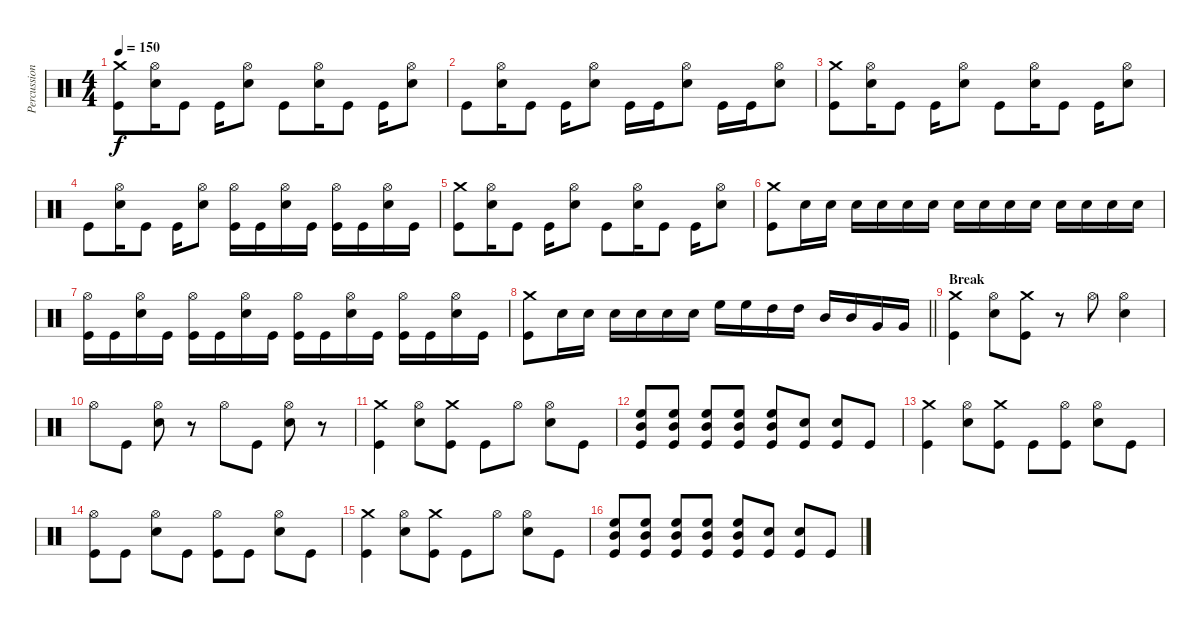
\track ("Percussion" "Percussion") {instrument percussion}
\staff {score}
\articulation defaults
\ts (4 4)
\tempo 150
\clef neutral
\ks c
("Crash medium (hit)" "Kick (hit)").8{dy f} ("Hi-Hat (open)" "Snare (hit) 2").16 "Kick (hit)".8 "Kick (hit)".16 ("Hi-Hat (open)" "Snare (hit) 2").8 "Kick (hit)".8 ("Hi-Hat (open)" "Snare (hit) 2").16 "Kick (hit)".8 "Kick (hit)".16 ("Hi-Hat (open)" "Snare (hit) 2").8 |
"Kick (hit)".8 ("Hi-Hat (open)" "Snare (hit) 2").16 "Kick (hit)".8 "Kick (hit)".16 ("Hi-Hat (open)" "Snare (hit) 2").8 "Kick (hit)".16 "Kick (hit)".16 ("Hi-Hat (open)" "Snare (hit) 2").8 "Kick (hit)".16 "Kick (hit)".16 ("Hi-Hat (open)" "Snare (hit) 2").8 |
("Crash medium (hit)" "Kick (hit)").8 ("Hi-Hat (open)" "Snare (hit) 2").16 "Kick (hit)".8 "Kick (hit)".16 ("Hi-Hat (open)" "Snare (hit) 2").8 "Kick (hit)".8 ("Hi-Hat (open)" "Snare (hit) 2").16 "Kick (hit)".8 "Kick (hit)".16 ("Hi-Hat (open)" "Snare (hit) 2").8 |
"Kick (hit)".8 ("Hi-Hat (open)" "Snare (hit) 2").16 "Kick (hit)".8 "Kick (hit)".16 ("Hi-Hat (open)" "Snare (hit) 2").8 ("Hi-Hat (open)" "Kick (hit)").16 "Kick (hit)".16 ("Hi-Hat (open)" "Snare (hit) 2").16 "Kick (hit)".16 ("Hi-Hat (open)" "Kick (hit)").16 "Kick (hit)".16 ("Hi-Hat (open)" "Snare (hit) 2").16 "Kick (hit)".16 |
("Crash medium (hit)" "Kick (hit)").8 ("Hi-Hat (open)" "Snare (hit) 2").16 "Kick (hit)".8 "Kick (hit)".16 ("Hi-Hat (open)" "Snare (hit) 2").8 "Kick (hit)".8 ("Hi-Hat (open)" "Snare (hit) 2").16 "Kick (hit)".8 "Kick (hit)".16 ("Hi-Hat (open)" "Snare (hit) 2").8 |
("Crash medium (hit)" "Kick (hit)").8 "Snare (hit) 2".16 "Snare (hit) 2".16 "Snare (hit) 2".16 "Snare (hit) 2".16 "Snare (hit) 2".16 "Snare (hit) 2".16 "Snare (hit) 2".16 "Snare (hit) 2".16 "Snare (hit) 2".16 "Snare (hit) 2".16 "Snare (hit) 2".16 "Snare (hit) 2".16 "Snare (hit) 2".16 "Snare (hit) 2".16 |
("Hi-Hat (open)" "Kick (hit)").16 "Kick (hit)".16 ("Hi-Hat (open)" "Snare (hit) 2").16 "Kick (hit)".16 ("Hi-Hat (open)" "Kick (hit)").16 "Kick (hit)".16 ("Hi-Hat (open)" "Snare (hit) 2").16 "Kick (hit)".16 ("Hi-Hat (open)" "Kick (hit)").16 "Kick (hit)".16 ("Hi-Hat (open)" "Snare (hit) 2").16 "Kick (hit)".16 ("Hi-Hat (open)" "Kick (hit)").16 "Kick (hit)".16 ("Hi-Hat (open)" "Snare (hit) 2").16 "Kick (hit)".16 |
\barLineRight lightlight
("Crash medium (hit)" "Kick (hit)").8 "Snare (hit) 2".16 "Snare (hit) 2".16 "Snare (hit) 2".16 "Snare (hit) 2".16 "Snare (hit) 2".16 "Snare (hit) 2".16 "High Floor Tom (hit)".16 "High Floor Tom (hit)".16 "High Tom (hit)".16 "High Tom (hit)".16 "Mid Tom (hit)".16 "Mid Tom (hit)".16 "Very Low Tom (hit)".16 "Very Low Tom (hit)".16 |
\section ("" "Break")
("Crash medium (hit)" "Kick (hit)").4 ("Hi-Hat (open)" "Snare (hit) 2").8 ("Crash medium (hit)" "Kick (hit)").8 r.8 "Hi-Hat (open)".8 ("Hi-Hat (open)" "Snare (hit) 2").4 |
"Hi-Hat (open)".8 "Kick (hit)".8 ("Hi-Hat (open)" "Snare (hit) 2").8 r.8 "Hi-Hat (open)".8 "Kick (hit)".8 ("Hi-Hat (open)" "Snare (hit) 2").8 r.8 |
("Crash medium (hit)" "Kick (hit)").4 ("Hi-Hat (open)" "Snare (hit) 2").8 ("Crash medium (hit)" "Kick (hit)").8 "Kick (hit)".8 "Hi-Hat (open)".8 ("Hi-Hat (open)" "Snare (hit) 2").8 "Kick (hit)".8 |
("High Floor Tom (hit)" "Mid Tom (hit)" "Kick (hit)").8 ("High Floor Tom (hit)" "Mid Tom (hit)" "Kick (hit)").8 ("High Floor Tom (hit)" "Mid Tom (hit)" "Kick (hit)").8 ("High Floor Tom (hit)" "Mid Tom (hit)" "Kick (hit)").8 ("High Floor Tom (hit)" "Mid Tom (hit)" "Kick (hit)").8 ("Snare (hit) 2" "Kick (hit)").8 ("Snare (hit) 2" "Kick (hit)").8 "Kick (hit)".8 |
("Crash medium (hit)" "Kick (hit)").4 ("Hi-Hat (open)" "Snare (hit) 2").8 ("Crash medium (hit)" "Kick (hit)").8 "Kick (hit)".8 ("Hi-Hat (open)" "Kick (hit)").8 ("Hi-Hat (open)" "Snare (hit) 2").8 "Kick (hit)".8 |
("Hi-Hat (open)" "Kick (hit)").8 "Kick (hit)".8 ("Hi-Hat (open)" "Snare (hit) 2").8 "Kick (hit)".8 ("Hi-Hat (open)" "Kick (hit)").8 "Kick (hit)".8 ("Hi-Hat (open)" "Snare (hit) 2").8 "Kick (hit)".8 |
("Crash medium (hit)" "Kick (hit)").4 ("Hi-Hat (open)" "Snare (hit) 2").8 ("Crash medium (hit)" "Kick (hit)").8 "Kick (hit)".8 "Hi-Hat (open)".8 ("Hi-Hat (open)" "Snare (hit) 2").8 "Kick (hit)".8 |
("High Floor Tom (hit)" "Mid Tom (hit)" "Kick (hit)").8 ("High Floor Tom (hit)" "Mid Tom (hit)" "Kick (hit)").8 ("High Floor Tom (hit)" "Mid Tom (hit)" "Kick (hit)").8 ("High Floor Tom (hit)" "Mid Tom (hit)" "Kick (hit)").8 ("High Floor Tom (hit)" "Mid Tom (hit)" "Kick (hit)").8 ("Snare (hit) 2" "Kick (hit)").8 ("Snare (hit) 2" "Kick (hit)").8 "Kick (hit)".8
